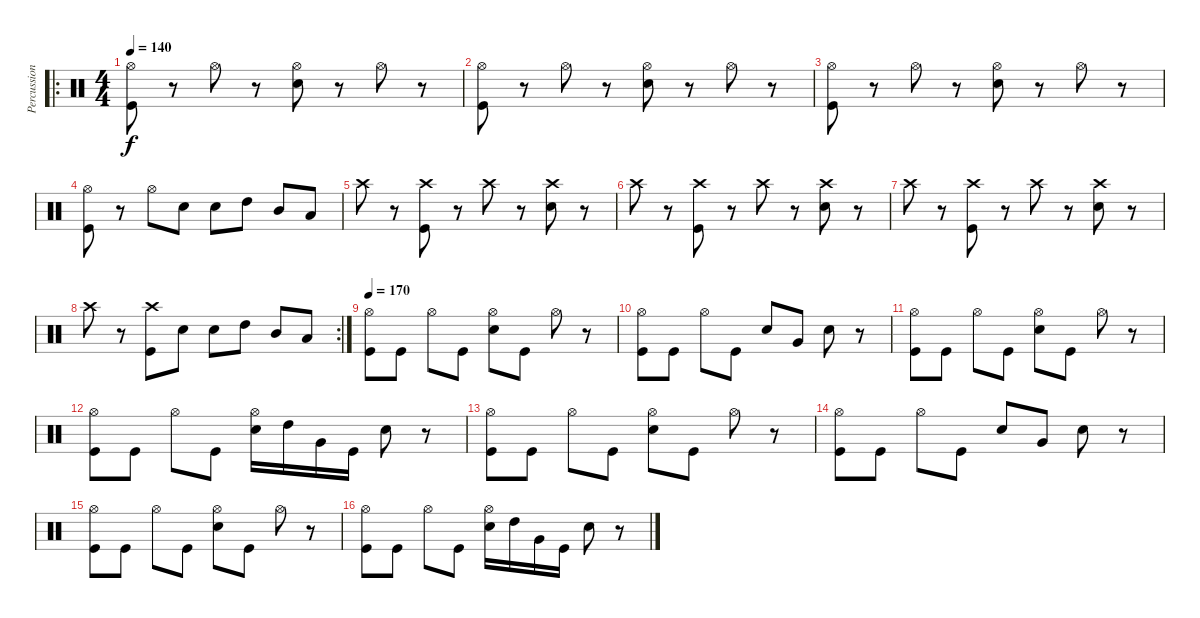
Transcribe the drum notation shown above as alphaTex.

\track ("Percussion" "Percussion") {instrument percussion}
\staff {score}
\articulation defaults
\ro
\ts (4 4)
\tempo 140
\clef neutral
\ks c
("Hi-Hat (open)" "Kick (hit)").8{dy f} r.8 "Hi-Hat (open)".8 r.8 ("Hi-Hat (open)" "Snare (hit) 2").8 r.8 "Hi-Hat (open)".8 r.8 |
("Hi-Hat (open)" "Kick (hit)").8 r.8 "Hi-Hat (open)".8 r.8 ("Hi-Hat (open)" "Snare (hit) 2").8 r.8 "Hi-Hat (open)".8 r.8 |
("Hi-Hat (open)" "Kick (hit)").8 r.8 "Hi-Hat (open)".8 r.8 ("Hi-Hat (open)" "Snare (hit) 2").8 r.8 "Hi-Hat (open)".8 r.8 |
("Hi-Hat (open)" "Kick (hit)").8 r.8 "Hi-Hat (open)".8 "Snare (hit) 2".8 "Snare (hit) 2".8 "High Tom (hit)".8 "Mid Tom (hit)".8 "Low Tom (hit)".8 |
"Crash high (hit)".8 r.8 ("Crash high (hit)" "Kick (hit)").8 r.8 "Crash high (hit)".8 r.8 ("Crash high (hit)" "Snare (hit) 2").8 r.8 |
"Crash high (hit)".8 r.8 ("Crash high (hit)" "Kick (hit)").8 r.8 "Crash high (hit)".8 r.8 ("Crash high (hit)" "Snare (hit) 2").8 r.8 |
"Crash high (hit)".8 r.8 ("Crash high (hit)" "Kick (hit)").8 r.8 "Crash high (hit)".8 r.8 ("Crash high (hit)" "Snare (hit) 2").8 r.8 |
\rc 2 "Crash high (hit)".8
r.8 ("Crash high (hit)" "Kick (hit)").8 "Snare (hit) 2".8 "Snare (hit) 2".8 "High Tom (hit)".8 "Mid Tom (hit)".8 "Low Tom (hit)".8 |
\tempo 170
("Hi-Hat (open)" "Kick (hit)").8 "Kick (hit)".8 "Hi-Hat (open)".8 "Kick (hit)".8 ("Hi-Hat (open)" "Snare (hit) 2").8 "Kick (hit)".8 "Hi-Hat (open)".8 r.8 |
("Hi-Hat (open)" "Kick (hit)").8 "Kick (hit)".8 "Hi-Hat (open)".8 "Kick (hit)".8 "Snare (hit) 2".8 "Very Low Tom (hit)".8 "Snare (hit) 2".8 r.8 |
("Hi-Hat (open)" "Kick (hit)").8 "Kick (hit)".8 "Hi-Hat (open)".8 "Kick (hit)".8 ("Hi-Hat (open)" "Snare (hit) 2").8 "Kick (hit)".8 "Hi-Hat (open)".8 r.8 |
("Hi-Hat (open)" "Kick (hit)").8 "Kick (hit)".8 "Hi-Hat (open)".8 "Kick (hit)".8 ("Hi-Hat (open)" "Snare (hit) 2").16 "High Tom (hit)".16 "Very Low Tom (hit)".16 "Kick (hit)".16 "Snare (hit) 2".8 r.8 |
("Hi-Hat (open)" "Kick (hit)").8 "Kick (hit)".8 "Hi-Hat (open)".8 "Kick (hit)".8 ("Hi-Hat (open)" "Snare (hit) 2").8 "Kick (hit)".8 "Hi-Hat (open)".8 r.8 |
("Hi-Hat (open)" "Kick (hit)").8 "Kick (hit)".8 "Hi-Hat (open)".8 "Kick (hit)".8 "Snare (hit) 2".8 "Very Low Tom (hit)".8 "Snare (hit) 2".8 r.8 |
("Hi-Hat (open)" "Kick (hit)").8 "Kick (hit)".8 "Hi-Hat (open)".8 "Kick (hit)".8 ("Hi-Hat (open)" "Snare (hit) 2").8 "Kick (hit)".8 "Hi-Hat (open)".8 r.8 |
("Hi-Hat (open)" "Kick (hit)").8 "Kick (hit)".8 "Hi-Hat (open)".8 "Kick (hit)".8 ("Hi-Hat (open)" "Snare (hit) 2").16 "High Tom (hit)".16 "Very Low Tom (hit)".16 "Kick (hit)".16 "Snare (hit) 2".8 r.8
